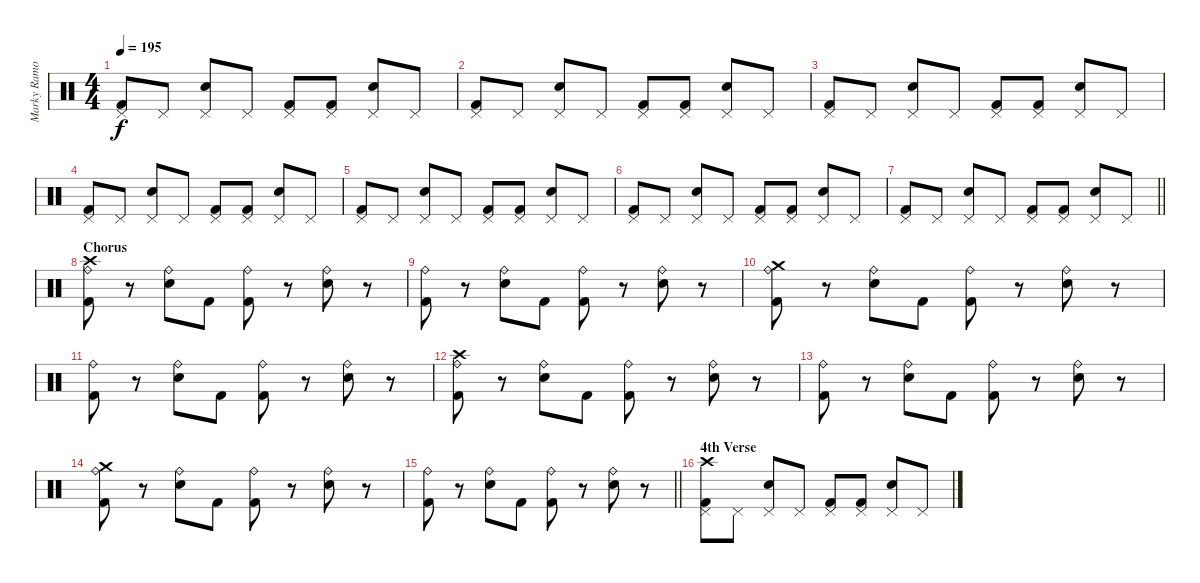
\track ("Marky Ramones" "Marky Ramo") {instrument percussion}
\staff {score}
\articulation defaults
\ts (4 4)
\tempo 195
\clef neutral
\ks c
("Pedal Hi-Hat (hit)" "Kick (hit) 2").8{dy f} "Pedal Hi-Hat (hit)".8 ("Pedal Hi-Hat (hit)" "Electric Snare (hit)").8 "Pedal Hi-Hat (hit)".8 ("Pedal Hi-Hat (hit)" "Kick (hit) 2").8 ("Pedal Hi-Hat (hit)" "Kick (hit) 2").8 ("Pedal Hi-Hat (hit)" "Electric Snare (hit)").8 "Pedal Hi-Hat (hit)".8 |
("Pedal Hi-Hat (hit)" "Kick (hit) 2").8 "Pedal Hi-Hat (hit)".8 ("Pedal Hi-Hat (hit)" "Electric Snare (hit)").8 "Pedal Hi-Hat (hit)".8 ("Pedal Hi-Hat (hit)" "Kick (hit) 2").8 ("Pedal Hi-Hat (hit)" "Kick (hit) 2").8 ("Pedal Hi-Hat (hit)" "Electric Snare (hit)").8 "Pedal Hi-Hat (hit)".8 |
("Pedal Hi-Hat (hit)" "Kick (hit) 2").8 "Pedal Hi-Hat (hit)".8 ("Pedal Hi-Hat (hit)" "Electric Snare (hit)").8 "Pedal Hi-Hat (hit)".8 ("Pedal Hi-Hat (hit)" "Kick (hit) 2").8 ("Pedal Hi-Hat (hit)" "Kick (hit) 2").8 ("Pedal Hi-Hat (hit)" "Electric Snare (hit)").8 "Pedal Hi-Hat (hit)".8 |
("Pedal Hi-Hat (hit)" "Kick (hit) 2").8 "Pedal Hi-Hat (hit)".8 ("Pedal Hi-Hat (hit)" "Electric Snare (hit)").8 "Pedal Hi-Hat (hit)".8 ("Pedal Hi-Hat (hit)" "Kick (hit) 2").8 ("Pedal Hi-Hat (hit)" "Kick (hit) 2").8 ("Pedal Hi-Hat (hit)" "Electric Snare (hit)").8 "Pedal Hi-Hat (hit)".8 |
("Pedal Hi-Hat (hit)" "Kick (hit) 2").8 "Pedal Hi-Hat (hit)".8 ("Pedal Hi-Hat (hit)" "Electric Snare (hit)").8 "Pedal Hi-Hat (hit)".8 ("Pedal Hi-Hat (hit)" "Kick (hit) 2").8 ("Pedal Hi-Hat (hit)" "Kick (hit) 2").8 ("Pedal Hi-Hat (hit)" "Electric Snare (hit)").8 "Pedal Hi-Hat (hit)".8 |
("Pedal Hi-Hat (hit)" "Kick (hit) 2").8 "Pedal Hi-Hat (hit)".8 ("Pedal Hi-Hat (hit)" "Electric Snare (hit)").8 "Pedal Hi-Hat (hit)".8 ("Pedal Hi-Hat (hit)" "Kick (hit) 2").8 ("Pedal Hi-Hat (hit)" "Kick (hit) 2").8 ("Pedal Hi-Hat (hit)" "Electric Snare (hit)").8 "Pedal Hi-Hat (hit)".8 |
\barLineRight lightlight
("Pedal Hi-Hat (hit)" "Kick (hit) 2").8 "Pedal Hi-Hat (hit)".8 ("Pedal Hi-Hat (hit)" "Electric Snare (hit)").8 "Pedal Hi-Hat (hit)".8 ("Pedal Hi-Hat (hit)" "Kick (hit) 2").8 ("Pedal Hi-Hat (hit)" "Kick (hit) 2").8 ("Pedal Hi-Hat (hit)" "Electric Snare (hit)").8 "Pedal Hi-Hat (hit)".8 |
\section ("" "Chorus")
("Ride (bell)" "Kick (hit) 2" "Crash high (hit)").8 r.8 ("Ride (bell)" "Electric Snare (hit)").8 "Kick (hit) 2".8 ("Ride (bell)" "Kick (hit) 2").8 r.8 ("Ride (bell)" "Electric Snare (hit)").8 r.8 |
("Ride (bell)" "Kick (hit) 2").8 r.8 ("Ride (bell)" "Electric Snare (hit)").8 "Kick (hit) 2".8 ("Ride (bell)" "Kick (hit) 2").8 r.8 ("Ride (bell)" "Electric Snare (hit)").8 r.8 |
("Ride (bell)" "Kick (hit) 2" "Crash medium (hit)").8 r.8 ("Ride (bell)" "Electric Snare (hit)").8 "Kick (hit) 2".8 ("Ride (bell)" "Kick (hit) 2").8 r.8 ("Ride (bell)" "Electric Snare (hit)").8 r.8 |
("Ride (bell)" "Kick (hit) 2").8 r.8 ("Ride (bell)" "Electric Snare (hit)").8 "Kick (hit) 2".8 ("Ride (bell)" "Kick (hit) 2").8 r.8 ("Ride (bell)" "Electric Snare (hit)").8 r.8 |
("Ride (bell)" "Kick (hit) 2" "Crash high (hit)").8 r.8 ("Ride (bell)" "Electric Snare (hit)").8 "Kick (hit) 2".8 ("Ride (bell)" "Kick (hit) 2").8 r.8 ("Ride (bell)" "Electric Snare (hit)").8 r.8 |
("Ride (bell)" "Kick (hit) 2").8 r.8 ("Ride (bell)" "Electric Snare (hit)").8 "Kick (hit) 2".8 ("Ride (bell)" "Kick (hit) 2").8 r.8 ("Ride (bell)" "Electric Snare (hit)").8 r.8 |
("Ride (bell)" "Kick (hit) 2" "Crash medium (hit)").8 r.8 ("Ride (bell)" "Electric Snare (hit)").8 "Kick (hit) 2".8 ("Ride (bell)" "Kick (hit) 2").8 r.8 ("Ride (bell)" "Electric Snare (hit)").8 r.8 |
\barLineRight lightlight
("Ride (bell)" "Kick (hit) 2").8 r.8 ("Ride (bell)" "Electric Snare (hit)").8 "Kick (hit) 2".8 ("Ride (bell)" "Kick (hit) 2").8 r.8 ("Ride (bell)" "Electric Snare (hit)").8 r.8 |
\section ("" "4th Verse")
("Pedal Hi-Hat (hit)" "Kick (hit) 2" "Crash high (hit)").8 "Pedal Hi-Hat (hit)".8 ("Pedal Hi-Hat (hit)" "Electric Snare (hit)").8 "Pedal Hi-Hat (hit)".8 ("Pedal Hi-Hat (hit)" "Kick (hit) 2").8 ("Pedal Hi-Hat (hit)" "Kick (hit) 2").8 ("Pedal Hi-Hat (hit)" "Electric Snare (hit)").8 "Pedal Hi-Hat (hit)".8
